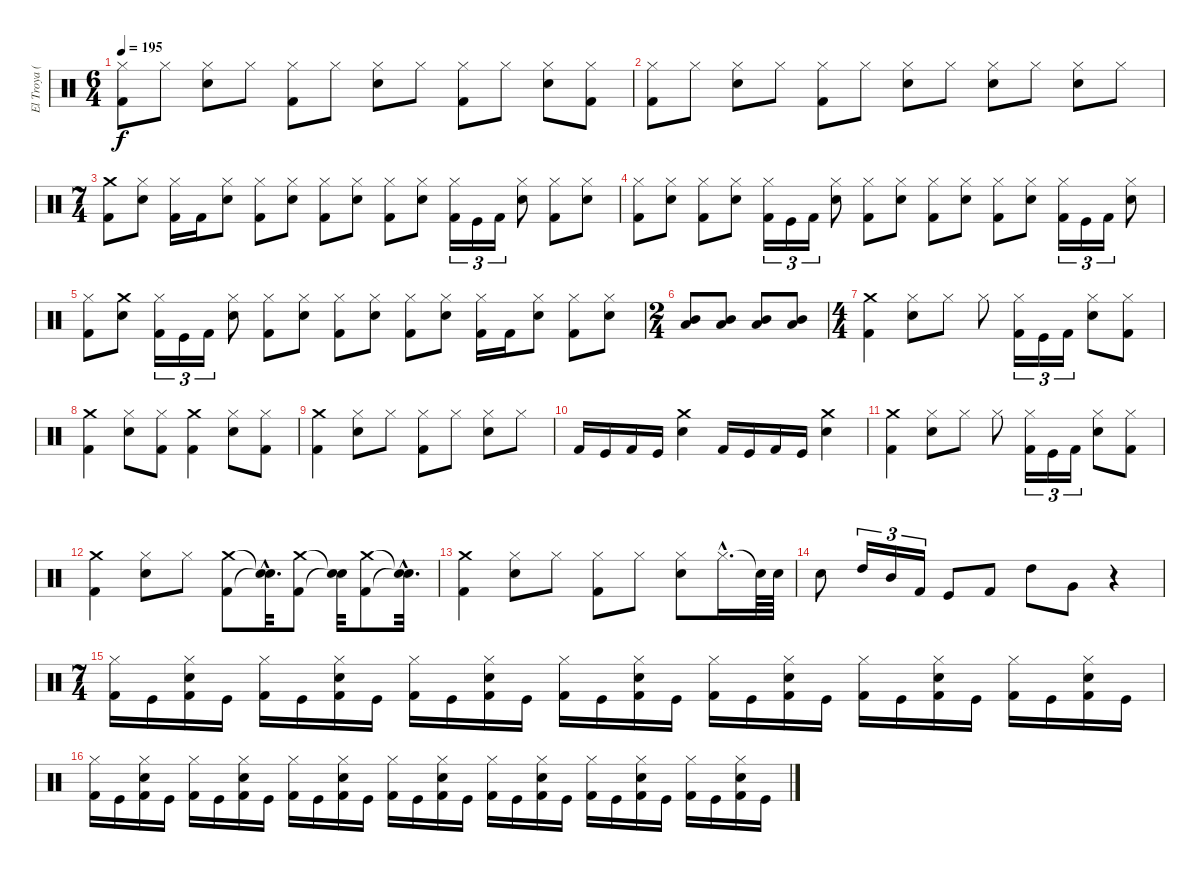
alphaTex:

\track ("El Troya (premio)" "El Troya (") {instrument percussion}
\staff {score}
\articulation defaults
\ts (6 4)
\tempo 195
\clef neutral
\ks c
("Hi-Hat (closed)" "Kick (hit) 2").8{dy f} "Hi-Hat (closed)".8 ("Snare (hit) 2" "Hi-Hat (closed)").8 "Hi-Hat (closed)".8 ("Kick (hit) 2" "Hi-Hat (closed)").8 "Hi-Hat (closed)".8 ("Snare (hit) 2" "Hi-Hat (closed)").8 "Hi-Hat (closed)".8 ("Kick (hit) 2" "Hi-Hat (closed)").8 "Hi-Hat (closed)".8 ("Snare (hit) 2" "Hi-Hat (closed)").8 ("Kick (hit) 2" "Hi-Hat (closed)").8 |
("Hi-Hat (closed)" "Kick (hit) 2").8 "Hi-Hat (closed)".8 ("Snare (hit) 2" "Hi-Hat (closed)").8 "Hi-Hat (closed)".8 ("Kick (hit) 2" "Hi-Hat (closed)").8 "Hi-Hat (closed)".8 ("Snare (hit) 2" "Hi-Hat (closed)").8 "Hi-Hat (closed)".8 ("Snare (hit) 2" "Hi-Hat (closed)").8 "Hi-Hat (closed)".8 ("Snare (hit) 2" "Hi-Hat (closed)").8 "Hi-Hat (closed)".8 |
\ts (7 4)
("Crash medium (hit)" "Kick (hit) 2").8 ("Snare (hit) 2" "Hi-Hat (closed)").8 ("Hi-Hat (closed)" "Kick (hit) 2").16 "Kick (hit) 2".16 ("Snare (hit) 2" "Hi-Hat (closed)").8 ("Hi-Hat (closed)" "Kick (hit) 2").8 ("Snare (hit) 2" "Hi-Hat (closed)").8 ("Hi-Hat (closed)" "Kick (hit) 2").8 ("Snare (hit) 2" "Hi-Hat (closed)").8 ("Hi-Hat (closed)" "Kick (hit) 2").8 ("Snare (hit) 2" "Hi-Hat (closed)").8 ("Hi-Hat (closed)" "Kick (hit) 2").16{tu (3 2)} "Kick (hit)".16{tu (3 2)} "Kick (hit) 2".16{tu (3 2)} ("Snare (hit) 2" "Hi-Hat (closed)").8 ("Hi-Hat (closed)" "Kick (hit) 2").8 ("Snare (hit) 2" "Hi-Hat (closed)").8 |
("Hi-Hat (closed)" "Kick (hit) 2").8 ("Snare (hit) 2" "Hi-Hat (closed)").8 ("Hi-Hat (closed)" "Kick (hit) 2").8 ("Snare (hit) 2" "Hi-Hat (closed)").8 ("Hi-Hat (closed)" "Kick (hit) 2").16{tu (3 2)} "Kick (hit)".16{tu (3 2)} "Kick (hit) 2".16{tu (3 2)} ("Snare (hit) 2" "Hi-Hat (closed)").8 ("Hi-Hat (closed)" "Kick (hit) 2").8 ("Snare (hit) 2" "Hi-Hat (closed)").8 ("Hi-Hat (closed)" "Kick (hit) 2").8 ("Snare (hit) 2" "Hi-Hat (closed)").8 ("Kick (hit) 2" "Hi-Hat (closed)").8 ("Snare (hit) 2" "Hi-Hat (closed)").8 ("Kick (hit) 2" "Hi-Hat (closed)").16{tu (3 2)} "Kick (hit)".16{tu (3 2)} "Kick (hit) 2".16{tu (3 2)} ("Snare (hit) 2" "Hi-Hat (closed)").8 |
("Kick (hit) 2" "Hi-Hat (closed)").8 ("Crash medium (hit)" "Snare (hit) 2").8 ("Kick (hit) 2" "Hi-Hat (closed)").16{tu (3 2)} "Kick (hit)".16{tu (3 2)} "Kick (hit) 2".16{tu (3 2)} ("Snare (hit) 2" "Hi-Hat (closed)").8 ("Hi-Hat (closed)" "Kick (hit) 2").8 ("Hi-Hat (closed)" "Snare (hit) 2").8 ("Hi-Hat (closed)" "Kick (hit) 2").8 ("Snare (hit) 2" "Hi-Hat (closed)").8 ("Hi-Hat (closed)" "Kick (hit) 2").8 ("Snare (hit) 2" "Hi-Hat (closed)").8 ("Hi-Hat (closed)" "Kick (hit) 2").16 "Kick (hit) 2".16 ("Snare (hit) 2" "Hi-Hat (closed)").8 ("Hi-Hat (closed)" "Kick (hit) 2").8 ("Snare (hit) 2" "Hi-Hat (closed)").8 |
\ts (2 4)
("Mid Tom (hit)" "Low Tom (hit)").8 ("Mid Tom (hit)" "Low Tom (hit)").8 ("Mid Tom (hit)" "Low Tom (hit)").8 ("Mid Tom (hit)" "Low Tom (hit)").8 |
\ts (4 4)
("Kick (hit) 2" "Crash medium (hit)").4 ("Snare (hit) 2" "Hi-Hat (closed)").8 "Hi-Hat (closed)".8 "Hi-Hat (closed)".8 ("Kick (hit) 2" "Hi-Hat (closed)").16{tu (3 2)} "Kick (hit)".16{tu (3 2)} "Kick (hit) 2".16{tu (3 2)} ("Snare (hit) 2" "Hi-Hat (closed)").8 ("Kick (hit) 2" "Hi-Hat (closed)").8 |
("Kick (hit) 2" "Crash medium (hit)").4 ("Hi-Hat (closed)" "Snare (hit) 2").8 ("Kick (hit) 2" "Hi-Hat (closed)").8 ("Crash medium (hit)" "Kick (hit) 2").4 ("Hi-Hat (closed)" "Snare (hit) 2").8 ("Kick (hit) 2" "Hi-Hat (closed)").8 |
("Kick (hit) 2" "Crash medium (hit)").4 ("Hi-Hat (closed)" "Snare (hit) 2").8 "Hi-Hat (closed)".8 ("Hi-Hat (closed)" "Kick (hit) 2").8 "Hi-Hat (closed)".8 ("Snare (hit) 2" "Hi-Hat (closed)").8 "Hi-Hat (closed)".8 |
"Kick (hit) 2".16 "Kick (hit)".16 "Kick (hit) 2".16 "Kick (hit)".16 ("Crash medium (hit)" "Snare (hit) 2").4 "Kick (hit) 2".16 "Kick (hit)".16 "Kick (hit) 2".16 "Kick (hit)".16 ("Snare (hit) 2" "Crash medium (hit)").4 |
("Kick (hit) 2" "Crash medium (hit)").4 ("Snare (hit) 2" "Hi-Hat (closed)").8 "Hi-Hat (closed)".8 "Hi-Hat (closed)".8 ("Kick (hit) 2" "Hi-Hat (closed)").16{tu (3 2)} "Kick (hit)".16{tu (3 2)} "Kick (hit) 2".16{tu (3 2)} ("Snare (hit) 2" "Hi-Hat (closed)").8 ("Kick (hit) 2" "Hi-Hat (closed)").8 |
("Kick (hit) 2" "Crash medium (hit)").4 ("Hi-Hat (closed)" "Snare (hit) 2").8 "Hi-Hat (closed)".8 ("Kick (hit) 2" "Crash medium (hit)").8 ("Snare (hit)"{hac t} "Snare (hit)"{hac t}).32{d} ("Kick (hit) 2" "Crash medium (hit)").8 ("Snare (hit)"{t} "Snare (hit)"{t}).32 ("Kick (hit) 2" "Crash medium (hit)").8 ("Snare (hit)"{hac t} "Snare (hit)"{hac t}).32{d} |
("Kick (hit) 2" "Crash medium (hit)").4 ("Hi-Hat (closed)" "Snare (hit) 2").8 "Hi-Hat (closed)".8 ("Hi-Hat (closed)" "Kick (hit) 2").8 "Hi-Hat (closed)".8 ("Snare (hit) 2" "Hi-Hat (closed)").8 "Hi-Hat (closed)"{hac}.16{d} "Snare (hit)"{t}.64 "Snare (hit) 2".64 |
"Snare (hit) 2".8 "High Tom (hit)".16{tu (3 2)} "Mid Tom (hit)".16{tu (3 2)} "Kick (hit) 2".16{tu (3 2)} "Kick (hit)".8 "Kick (hit) 2".8 "High Tom (hit)".8 "Very Low Tom (hit)".8 r.4 |
\ts (7 4)
("Hi-Hat (closed)" "Kick (hit) 2").16 "Kick (hit)".16 ("Snare (hit) 2" "Hi-Hat (closed)" "Kick (hit) 2").16 "Kick (hit)".16 ("Hi-Hat (closed)" "Kick (hit) 2").16 "Kick (hit)".16 ("Snare (hit) 2" "Hi-Hat (closed)" "Kick (hit) 2").16 "Kick (hit)".16 ("Hi-Hat (closed)" "Kick (hit) 2").16 "Kick (hit)".16 ("Snare (hit) 2" "Hi-Hat (closed)" "Kick (hit) 2").16 "Kick (hit)".16 ("Hi-Hat (closed)" "Kick (hit) 2").16 "Kick (hit)".16 ("Snare (hit) 2" "Hi-Hat (closed)" "Kick (hit) 2").16 "Kick (hit)".16 ("Hi-Hat (closed)" "Kick (hit) 2").16 "Kick (hit)".16 ("Snare (hit) 2" "Hi-Hat (closed)" "Kick (hit) 2").16 "Kick (hit)".16 ("Hi-Hat (closed)" "Kick (hit) 2").16 "Kick (hit)".16 ("Snare (hit) 2" "Hi-Hat (closed)" "Kick (hit) 2").16 "Kick (hit)".16 ("Hi-Hat (closed)" "Kick (hit) 2").16 "Kick (hit)".16 ("Snare (hit) 2" "Hi-Hat (closed)" "Kick (hit) 2").16 "Kick (hit)".16 |
("Hi-Hat (closed)" "Kick (hit) 2").16 "Kick (hit)".16 ("Snare (hit) 2" "Hi-Hat (closed)" "Kick (hit) 2").16 "Kick (hit)".16 ("Hi-Hat (closed)" "Kick (hit) 2").16 "Kick (hit)".16 ("Snare (hit) 2" "Hi-Hat (closed)" "Kick (hit) 2").16 "Kick (hit)".16 ("Hi-Hat (closed)" "Kick (hit) 2").16 "Kick (hit)".16 ("Snare (hit) 2" "Hi-Hat (closed)" "Kick (hit) 2").16 "Kick (hit)".16 ("Hi-Hat (closed)" "Kick (hit) 2").16 "Kick (hit)".16 ("Snare (hit) 2" "Hi-Hat (closed)" "Kick (hit) 2").16 "Kick (hit)".16 ("Hi-Hat (closed)" "Kick (hit) 2").16 "Kick (hit)".16 ("Snare (hit) 2" "Hi-Hat (closed)" "Kick (hit) 2").16 "Kick (hit)".16 ("Hi-Hat (closed)" "Kick (hit) 2").16 "Kick (hit)".16 ("Snare (hit) 2" "Hi-Hat (closed)" "Kick (hit) 2").16 "Kick (hit)".16 ("Hi-Hat (closed)" "Kick (hit) 2").16 "Kick (hit)".16 ("Snare (hit) 2" "Hi-Hat (closed)" "Kick (hit) 2").16 "Kick (hit)".16
